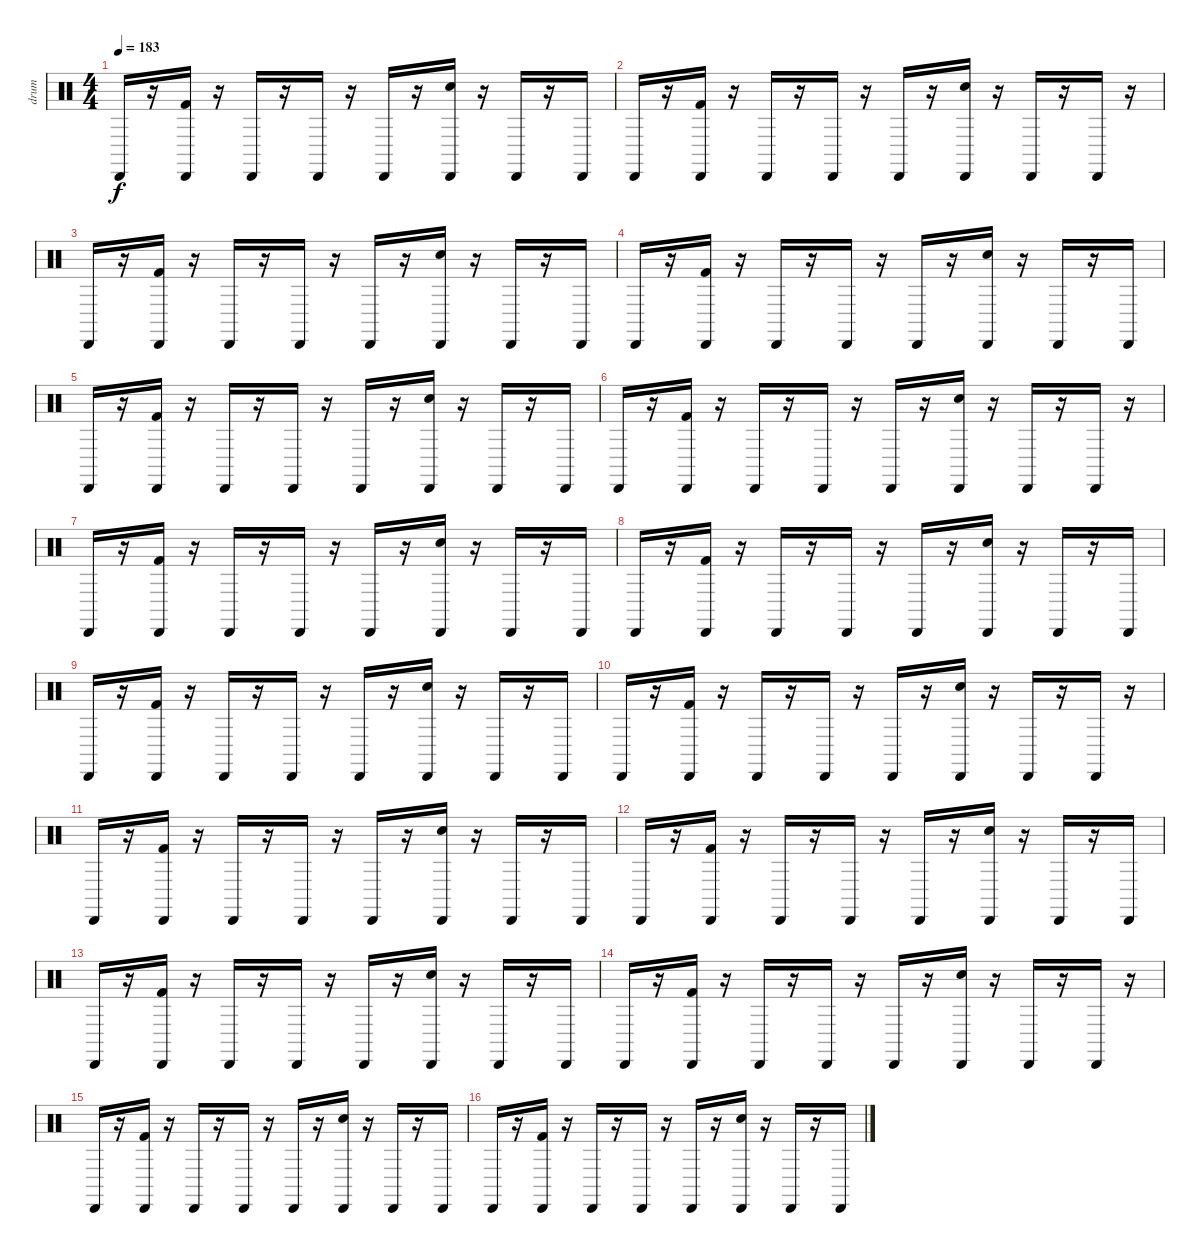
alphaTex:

\track ("drum" "drum") {instrument percussion}
\staff {score}
\articulation defaults
\ts (4 4)
\tempo 183
\clef neutral
\ks c "Cabasa (hit)".16{dy f}
r.16 ("Cabasa (hit)" "Kick (hit) 2").16 r.16 "Cabasa (hit)".16 r.16 "Cabasa (hit)".16 r.16 "Cabasa (hit)".16 r.16 ("Cabasa (hit)" "Snare (hit) 2").16 r.16 "Cabasa (hit)".16 r.16 "Cabasa (hit)".16 |
"Cabasa (hit)".16 r.16 ("Cabasa (hit)" "Kick (hit) 2").16 r.16 "Cabasa (hit)".16 r.16 "Cabasa (hit)".16 r.16 "Cabasa (hit)".16 r.16 ("Cabasa (hit)" "Snare (hit) 2").16 r.16 "Cabasa (hit)".16 r.16 "Cabasa (hit)".16 r.16 |
"Cabasa (hit)".16 r.16 ("Cabasa (hit)" "Kick (hit) 2").16 r.16 "Cabasa (hit)".16 r.16 "Cabasa (hit)".16 r.16 "Cabasa (hit)".16 r.16 ("Cabasa (hit)" "Snare (hit) 2").16 r.16 "Cabasa (hit)".16 r.16 "Cabasa (hit)".16 |
"Cabasa (hit)".16 r.16 ("Cabasa (hit)" "Kick (hit) 2").16 r.16 "Cabasa (hit)".16 r.16 "Cabasa (hit)".16 r.16 "Cabasa (hit)".16 r.16 ("Cabasa (hit)" "Snare (hit) 2").16 r.16 "Cabasa (hit)".16 r.16 "Cabasa (hit)".16 |
"Cabasa (hit)".16 r.16 ("Cabasa (hit)" "Kick (hit) 2").16 r.16 "Cabasa (hit)".16 r.16 "Cabasa (hit)".16 r.16 "Cabasa (hit)".16 r.16 ("Cabasa (hit)" "Snare (hit) 2").16 r.16 "Cabasa (hit)".16 r.16 "Cabasa (hit)".16 |
"Cabasa (hit)".16 r.16 ("Cabasa (hit)" "Kick (hit) 2").16 r.16 "Cabasa (hit)".16 r.16 "Cabasa (hit)".16 r.16 "Cabasa (hit)".16 r.16 ("Cabasa (hit)" "Snare (hit) 2").16 r.16 "Cabasa (hit)".16 r.16 "Cabasa (hit)".16 r.16 |
"Cabasa (hit)".16 r.16 ("Cabasa (hit)" "Kick (hit) 2").16 r.16 "Cabasa (hit)".16 r.16 "Cabasa (hit)".16 r.16 "Cabasa (hit)".16 r.16 ("Cabasa (hit)" "Snare (hit) 2").16 r.16 "Cabasa (hit)".16 r.16 "Cabasa (hit)".16 |
"Cabasa (hit)".16 r.16 ("Cabasa (hit)" "Kick (hit) 2").16 r.16 "Cabasa (hit)".16 r.16 "Cabasa (hit)".16 r.16 "Cabasa (hit)".16 r.16 ("Cabasa (hit)" "Snare (hit) 2").16 r.16 "Cabasa (hit)".16 r.16 "Cabasa (hit)".16 |
"Cabasa (hit)".16 r.16 ("Cabasa (hit)" "Kick (hit) 2").16 r.16 "Cabasa (hit)".16 r.16 "Cabasa (hit)".16 r.16 "Cabasa (hit)".16 r.16 ("Cabasa (hit)" "Snare (hit) 2").16 r.16 "Cabasa (hit)".16 r.16 "Cabasa (hit)".16 |
"Cabasa (hit)".16 r.16 ("Cabasa (hit)" "Kick (hit) 2").16 r.16 "Cabasa (hit)".16 r.16 "Cabasa (hit)".16 r.16 "Cabasa (hit)".16 r.16 ("Cabasa (hit)" "Snare (hit) 2").16 r.16 "Cabasa (hit)".16 r.16 "Cabasa (hit)".16 r.16 |
"Cabasa (hit)".16 r.16 ("Cabasa (hit)" "Kick (hit) 2").16 r.16 "Cabasa (hit)".16 r.16 "Cabasa (hit)".16 r.16 "Cabasa (hit)".16 r.16 ("Cabasa (hit)" "Snare (hit) 2").16 r.16 "Cabasa (hit)".16 r.16 "Cabasa (hit)".16 |
"Cabasa (hit)".16 r.16 ("Cabasa (hit)" "Kick (hit) 2").16 r.16 "Cabasa (hit)".16 r.16 "Cabasa (hit)".16 r.16 "Cabasa (hit)".16 r.16 ("Cabasa (hit)" "Snare (hit) 2").16 r.16 "Cabasa (hit)".16 r.16 "Cabasa (hit)".16 |
"Cabasa (hit)".16 r.16 ("Cabasa (hit)" "Kick (hit) 2").16 r.16 "Cabasa (hit)".16 r.16 "Cabasa (hit)".16 r.16 "Cabasa (hit)".16 r.16 ("Cabasa (hit)" "Snare (hit) 2").16 r.16 "Cabasa (hit)".16 r.16 "Cabasa (hit)".16 |
"Cabasa (hit)".16 r.16 ("Cabasa (hit)" "Kick (hit) 2").16 r.16 "Cabasa (hit)".16 r.16 "Cabasa (hit)".16 r.16 "Cabasa (hit)".16 r.16 ("Cabasa (hit)" "Snare (hit) 2").16 r.16 "Cabasa (hit)".16 r.16 "Cabasa (hit)".16 r.16 |
"Cabasa (hit)".16 r.16 ("Cabasa (hit)" "Kick (hit) 2").16 r.16 "Cabasa (hit)".16 r.16 "Cabasa (hit)".16 r.16 "Cabasa (hit)".16 r.16 ("Cabasa (hit)" "Snare (hit) 2").16 r.16 "Cabasa (hit)".16 r.16 "Cabasa (hit)".16 |
"Cabasa (hit)".16 r.16 ("Cabasa (hit)" "Kick (hit) 2").16 r.16 "Cabasa (hit)".16 r.16 "Cabasa (hit)".16 r.16 "Cabasa (hit)".16 r.16 ("Cabasa (hit)" "Snare (hit) 2").16 r.16 "Cabasa (hit)".16 r.16 "Cabasa (hit)".16
